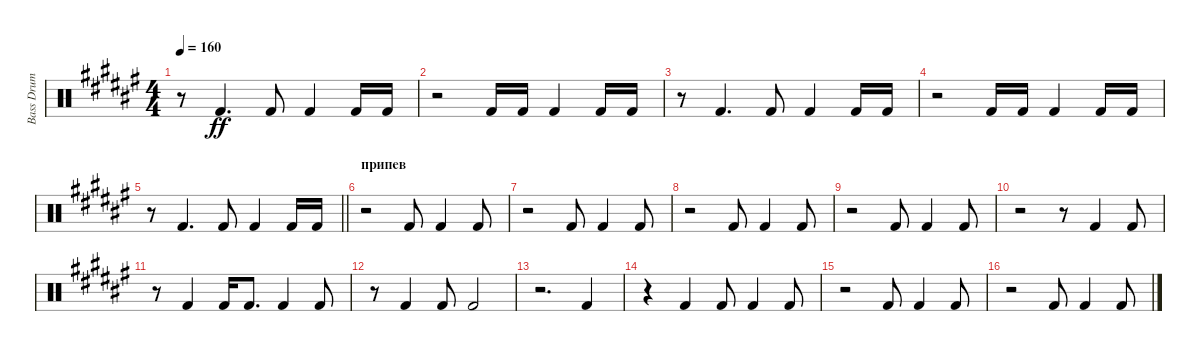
\track ("Bass Drum" "Bass Drum") {instrument percussion}
\staff {score}
\articulation defaults
\ts (4 4)
\tempo 160
\clef neutral
\ks d#minor
r.8{dy ff} "Kick (hit) 2".4{d} "Kick (hit) 2".8 "Kick (hit) 2".4 "Kick (hit) 2".16 "Kick (hit) 2".16 |
r.2 "Kick (hit) 2".16 "Kick (hit) 2".16 "Kick (hit) 2".4 "Kick (hit) 2".16 "Kick (hit) 2".16 |
r.8 "Kick (hit) 2".4{d} "Kick (hit) 2".8 "Kick (hit) 2".4 "Kick (hit) 2".16 "Kick (hit) 2".16 |
r.2 "Kick (hit) 2".16 "Kick (hit) 2".16 "Kick (hit) 2".4 "Kick (hit) 2".16 "Kick (hit) 2".16 |
\barLineRight lightlight
r.8 "Kick (hit) 2".4{d} "Kick (hit) 2".8 "Kick (hit) 2".4 "Kick (hit) 2".16 "Kick (hit) 2".16 |
\section ("" "припев")
r.2 "Kick (hit) 2".8 "Kick (hit) 2".4 "Kick (hit) 2".8 |
r.2 "Kick (hit) 2".8 "Kick (hit) 2".4 "Kick (hit) 2".8 |
r.2 "Kick (hit) 2".8 "Kick (hit) 2".4 "Kick (hit) 2".8 |
r.2 "Kick (hit) 2".8 "Kick (hit) 2".4 "Kick (hit) 2".8 |
r.2 r.8 "Kick (hit) 2".4 "Kick (hit) 2".8 |
r.8 "Kick (hit) 2".4 "Kick (hit) 2".16 "Kick (hit) 2".8{d} "Kick (hit) 2".4 "Kick (hit) 2".8 |
r.8 "Kick (hit) 2".4 "Kick (hit) 2".8 "Kick (hit) 2".2 |
r.2{d} "Kick (hit) 2".4 |
r.4 "Kick (hit) 2".4 "Kick (hit) 2".8 "Kick (hit) 2".4 "Kick (hit) 2".8 |
r.2 "Kick (hit) 2".8 "Kick (hit) 2".4 "Kick (hit) 2".8 |
r.2 "Kick (hit) 2".8 "Kick (hit) 2".4 "Kick (hit) 2".8
